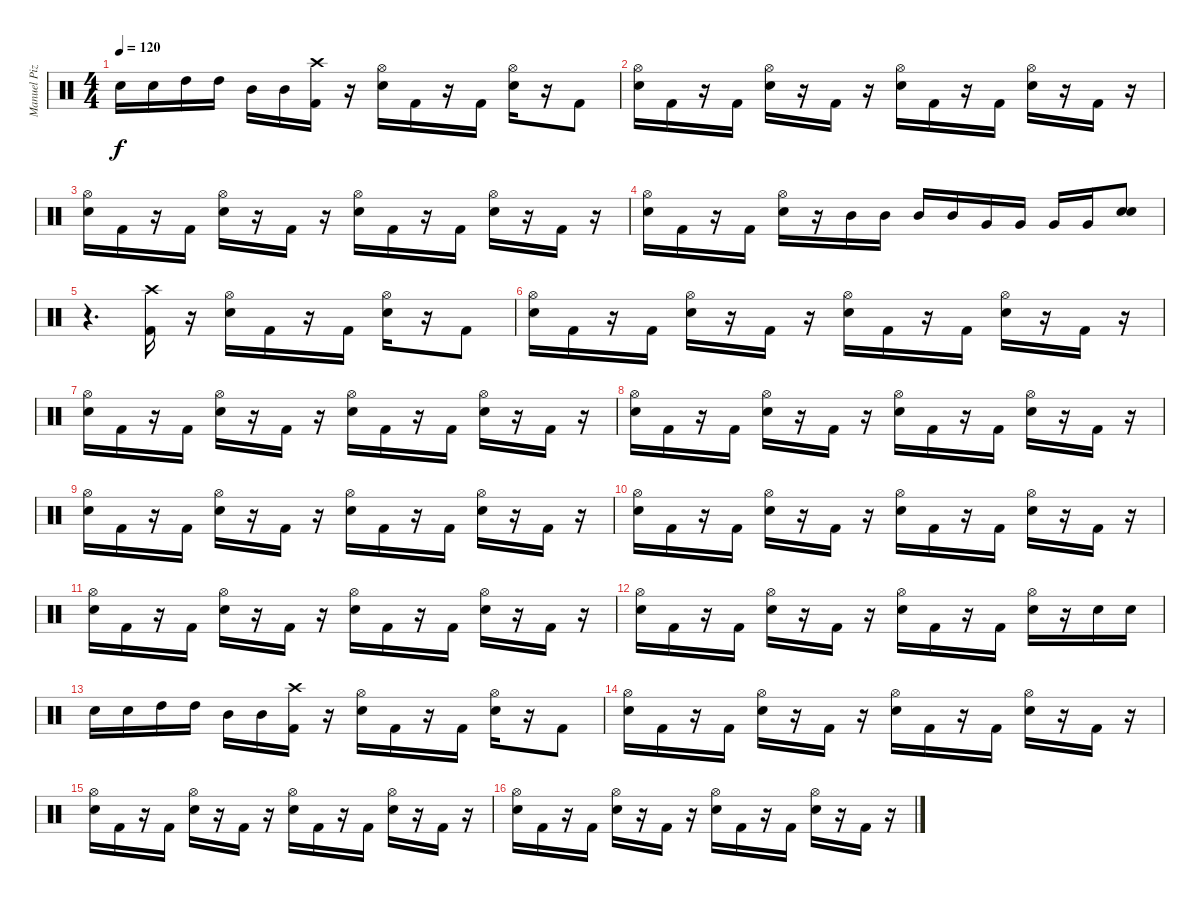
\track ("Manuel Pizarro" "Manuel Piz") {instrument percussion}
\staff {score}
\articulation defaults
\ts (4 4)
\tempo 120
\clef neutral
\ks c "Electric Snare (hit)".16{dy f} "Electric Snare (hit)".16 "High Tom (hit)".16 "High Tom (hit)".16 "Mid Tom (hit)".16 "Mid Tom (hit)".16
("Kick (hit) 2" "Crash high (hit)").16 r.16 ("Electric Snare (hit)" "Hi-Hat (open)").16 "Kick (hit) 2".16 r.16 "Kick (hit) 2".16 ("Electric Snare (hit)" "Hi-Hat (open)").16 r.16 "Kick (hit) 2".8 |
("Electric Snare (hit)" "Hi-Hat (open)").16 "Kick (hit) 2".16 r.16 "Kick (hit) 2".16 ("Electric Snare (hit)" "Hi-Hat (open)").16 r.16 "Kick (hit) 2".16 r.16 ("Electric Snare (hit)" "Hi-Hat (open)").16 "Kick (hit) 2".16 r.16 "Kick (hit) 2".16 ("Electric Snare (hit)" "Hi-Hat (open)").16 r.16 "Kick (hit) 2".16 r.16 |
("Electric Snare (hit)" "Hi-Hat (open)").16 "Kick (hit) 2".16 r.16 "Kick (hit) 2".16 ("Electric Snare (hit)" "Hi-Hat (open)").16 r.16 "Kick (hit) 2".16 r.16 ("Electric Snare (hit)" "Hi-Hat (open)").16 "Kick (hit) 2".16 r.16 "Kick (hit) 2".16 ("Electric Snare (hit)" "Hi-Hat (open)").16 r.16 "Kick (hit) 2".16 r.16 |
("Electric Snare (hit)" "Hi-Hat (open)").16 "Kick (hit) 2".16 r.16 "Kick (hit) 2".16 ("Electric Snare (hit)" "Hi-Hat (open)").16 r.16 "Mid Tom (hit)".16 "Mid Tom (hit)".16 "Mid Tom (hit)".16 "Mid Tom (hit)".16 "Very Low Tom (hit)".16 "Very Low Tom (hit)".16 "Very Low Tom (hit)".16 "Very Low Tom (hit)".16 ("Electric Snare (hit)" "Electric Snare (hit)").8 |
r.4{d} ("Kick (hit) 2" "Crash high (hit)").16 r.16 ("Electric Snare (hit)" "Hi-Hat (open)").16 "Kick (hit) 2".16 r.16 "Kick (hit) 2".16 ("Electric Snare (hit)" "Hi-Hat (open)").16 r.16 "Kick (hit) 2".8 |
("Electric Snare (hit)" "Hi-Hat (open)").16 "Kick (hit) 2".16 r.16 "Kick (hit) 2".16 ("Electric Snare (hit)" "Hi-Hat (open)").16 r.16 "Kick (hit) 2".16 r.16 ("Electric Snare (hit)" "Hi-Hat (open)").16 "Kick (hit) 2".16 r.16 "Kick (hit) 2".16 ("Electric Snare (hit)" "Hi-Hat (open)").16 r.16 "Kick (hit) 2".16 r.16 |
("Electric Snare (hit)" "Hi-Hat (open)").16 "Kick (hit) 2".16 r.16 "Kick (hit) 2".16 ("Electric Snare (hit)" "Hi-Hat (open)").16 r.16 "Kick (hit) 2".16 r.16 ("Electric Snare (hit)" "Hi-Hat (open)").16 "Kick (hit) 2".16 r.16 "Kick (hit) 2".16 ("Electric Snare (hit)" "Hi-Hat (open)").16 r.16 "Kick (hit) 2".16 r.16 |
("Electric Snare (hit)" "Hi-Hat (open)").16 "Kick (hit) 2".16 r.16 "Kick (hit) 2".16 ("Electric Snare (hit)" "Hi-Hat (open)").16 r.16 "Kick (hit) 2".16 r.16 ("Electric Snare (hit)" "Hi-Hat (open)").16 "Kick (hit) 2".16 r.16 "Kick (hit) 2".16 ("Electric Snare (hit)" "Hi-Hat (open)").16 r.16 "Kick (hit) 2".16 r.16 |
("Electric Snare (hit)" "Hi-Hat (open)").16 "Kick (hit) 2".16 r.16 "Kick (hit) 2".16 ("Electric Snare (hit)" "Hi-Hat (open)").16 r.16 "Kick (hit) 2".16 r.16 ("Electric Snare (hit)" "Hi-Hat (open)").16 "Kick (hit) 2".16 r.16 "Kick (hit) 2".16 ("Electric Snare (hit)" "Hi-Hat (open)").16 r.16 "Kick (hit) 2".16 r.16 |
("Electric Snare (hit)" "Hi-Hat (open)").16 "Kick (hit) 2".16 r.16 "Kick (hit) 2".16 ("Electric Snare (hit)" "Hi-Hat (open)").16 r.16 "Kick (hit) 2".16 r.16 ("Electric Snare (hit)" "Hi-Hat (open)").16 "Kick (hit) 2".16 r.16 "Kick (hit) 2".16 ("Electric Snare (hit)" "Hi-Hat (open)").16 r.16 "Kick (hit) 2".16 r.16 |
("Electric Snare (hit)" "Hi-Hat (open)").16 "Kick (hit) 2".16 r.16 "Kick (hit) 2".16 ("Electric Snare (hit)" "Hi-Hat (open)").16 r.16 "Kick (hit) 2".16 r.16 ("Electric Snare (hit)" "Hi-Hat (open)").16 "Kick (hit) 2".16 r.16 "Kick (hit) 2".16 ("Electric Snare (hit)" "Hi-Hat (open)").16 r.16 "Kick (hit) 2".16 r.16 |
("Electric Snare (hit)" "Hi-Hat (open)").16 "Kick (hit) 2".16 r.16 "Kick (hit) 2".16 ("Electric Snare (hit)" "Hi-Hat (open)").16 r.16 "Kick (hit) 2".16 r.16 ("Electric Snare (hit)" "Hi-Hat (open)").16 "Kick (hit) 2".16 r.16 "Kick (hit) 2".16 ("Electric Snare (hit)" "Hi-Hat (open)").16 r.16 "Electric Snare (hit)".16 "Electric Snare (hit)".16 |
"Electric Snare (hit)".16 "Electric Snare (hit)".16 "High Tom (hit)".16 "High Tom (hit)".16 "Mid Tom (hit)".16 "Mid Tom (hit)".16 ("Kick (hit) 2" "Crash high (hit)").16 r.16 ("Electric Snare (hit)" "Hi-Hat (open)").16 "Kick (hit) 2".16 r.16 "Kick (hit) 2".16 ("Electric Snare (hit)" "Hi-Hat (open)").16 r.16 "Kick (hit) 2".8 |
("Electric Snare (hit)" "Hi-Hat (open)").16 "Kick (hit) 2".16 r.16 "Kick (hit) 2".16 ("Electric Snare (hit)" "Hi-Hat (open)").16 r.16 "Kick (hit) 2".16 r.16 ("Electric Snare (hit)" "Hi-Hat (open)").16 "Kick (hit) 2".16 r.16 "Kick (hit) 2".16 ("Electric Snare (hit)" "Hi-Hat (open)").16 r.16 "Kick (hit) 2".16 r.16 |
("Electric Snare (hit)" "Hi-Hat (open)").16 "Kick (hit) 2".16 r.16 "Kick (hit) 2".16 ("Electric Snare (hit)" "Hi-Hat (open)").16 r.16 "Kick (hit) 2".16 r.16 ("Electric Snare (hit)" "Hi-Hat (open)").16 "Kick (hit) 2".16 r.16 "Kick (hit) 2".16 ("Electric Snare (hit)" "Hi-Hat (open)").16 r.16 "Kick (hit) 2".16 r.16 |
("Electric Snare (hit)" "Hi-Hat (open)").16 "Kick (hit) 2".16 r.16 "Kick (hit) 2".16 ("Electric Snare (hit)" "Hi-Hat (open)").16 r.16 "Kick (hit) 2".16 r.16 ("Electric Snare (hit)" "Hi-Hat (open)").16 "Kick (hit) 2".16 r.16 "Kick (hit) 2".16 ("Electric Snare (hit)" "Hi-Hat (open)").16 r.16 "Kick (hit) 2".16 r.16
